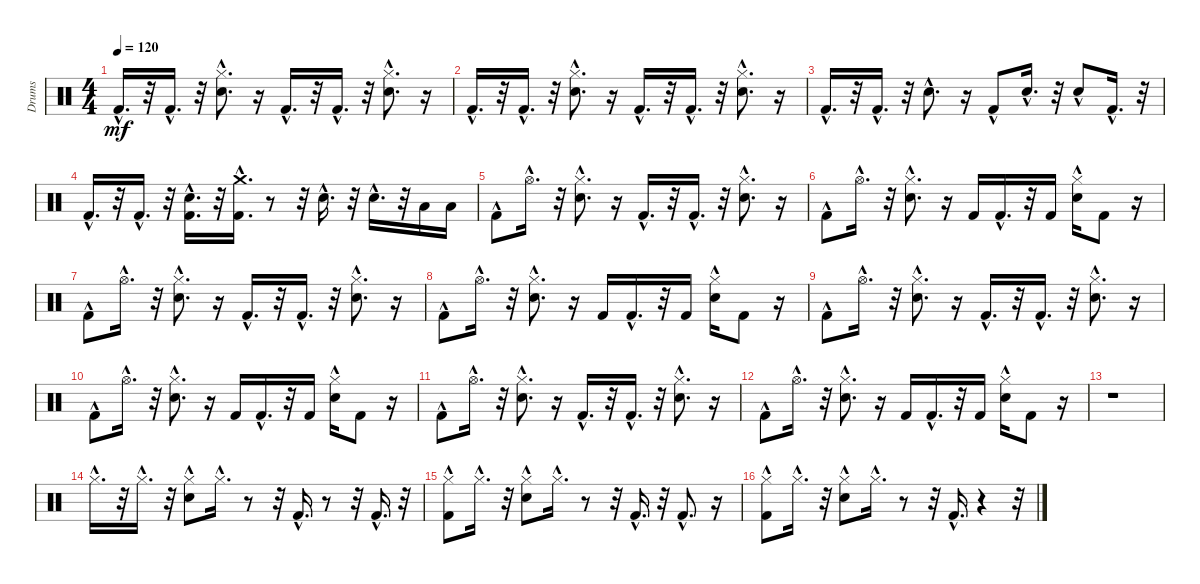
\track ("Drums" "Drums") {instrument percussion}
\staff {score}
\articulation defaults
\ts (4 4)
\tempo 120
\clef neutral
\ks c "Kick (hit) 2"{hac}.16{d dy mf}
r.32 "Kick (hit) 2"{hac}.16{d} r.32 ("Snare (hit) 2"{hac} "Hi-Hat (closed)"{hac}).8{d} r.16 "Kick (hit) 2"{hac}.16{d} r.32 "Kick (hit) 2"{hac}.16{d} r.32 ("Snare (hit) 2"{hac} "Hi-Hat (closed)"{hac}).8{d} r.16 |
"Kick (hit) 2"{hac}.16{d} r.32 "Kick (hit) 2"{hac}.16{d} r.32 ("Hi-Hat (closed)"{hac} "Snare (hit) 2"{hac}).8{d} r.16 "Kick (hit) 2"{hac}.16{d} r.32 "Kick (hit) 2"{hac}.16{d} r.32 ("Snare (hit) 2"{hac} "Hi-Hat (closed)"{hac}).8{d} r.16 |
"Kick (hit) 2"{hac}.16{d} r.32 "Kick (hit) 2"{hac}.16{d} r.32 "Snare (hit) 2"{hac}.8{d} r.16 "Kick (hit) 2"{hac}.8 "Snare (hit) 2"{hac}.16{d} r.32 "Snare (hit) 2"{hac}.8 "Kick (hit) 2"{hac}.16{d} r.32 |
"Kick (hit) 2"{hac}.16{d} r.32 "Kick (hit) 2"{hac}.16{d} r.32 ("Kick (hit) 2"{hac} "Snare (hit) 2"{hac}).16{d} r.32 ("Kick (hit) 2"{hac} "Crash medium (hit)"{hac}).16{d} r.8 r.32 "Snare (hit) 2"{hac}.16{d} r.32 "Snare (hit) 2"{hac}.16{d} r.32 "Low Tom (hit)".16 "Low Tom (hit)".16 |
"Kick (hit) 2"{hac}.8 "Hi-Hat (open)"{hac}.16{d} r.32 ("Hi-Hat (closed)"{hac} "Snare (hit) 2"{hac}).8{d} r.16 "Kick (hit) 2"{hac}.16{d} r.32 "Kick (hit) 2"{hac}.16{d} r.32 ("Hi-Hat (closed)"{hac} "Snare (hit) 2"{hac}).8{d} r.16 |
"Kick (hit) 2"{hac}.8 "Hi-Hat (open)"{hac}.16{d} r.32 ("Snare (hit) 2"{hac} "Hi-Hat (closed)"{hac}).8{d} r.16 "Kick (hit) 2".16 "Kick (hit) 2"{hac}.16{d} r.32 "Kick (hit) 2".16 ("Snare (hit) 2"{hac} "Hi-Hat (closed)"{hac}).16 "Kick (hit) 2".8 r.16 |
"Kick (hit) 2"{hac}.8 "Hi-Hat (open)"{hac}.16{d} r.32 ("Hi-Hat (closed)"{hac} "Snare (hit) 2"{hac}).8{d} r.16 "Kick (hit) 2"{hac}.16{d} r.32 "Kick (hit) 2"{hac}.16{d} r.32 ("Snare (hit) 2"{hac} "Hi-Hat (closed)"{hac}).8{d} r.16 |
"Kick (hit) 2"{hac}.8 "Hi-Hat (open)"{hac}.16{d} r.32 ("Snare (hit) 2"{hac} "Hi-Hat (closed)"{hac}).8{d} r.16 "Kick (hit) 2".16 "Kick (hit) 2"{hac}.16{d} r.32 "Kick (hit) 2".16 ("Snare (hit) 2"{hac} "Hi-Hat (closed)"{hac}).16 "Kick (hit) 2".8 r.16 |
"Kick (hit) 2"{hac}.8 "Hi-Hat (open)"{hac}.16{d} r.32 ("Hi-Hat (closed)"{hac} "Snare (hit) 2"{hac}).8{d} r.16 "Kick (hit) 2"{hac}.16{d} r.32 "Kick (hit) 2"{hac}.16{d} r.32 ("Snare (hit) 2"{hac} "Hi-Hat (closed)"{hac}).8{d} r.16 |
"Kick (hit) 2"{hac}.8 "Hi-Hat (open)"{hac}.16{d} r.32 ("Snare (hit) 2"{hac} "Hi-Hat (closed)"{hac}).8{d} r.16 "Kick (hit) 2".16 "Kick (hit) 2"{hac}.16{d} r.32 "Kick (hit) 2".16 ("Snare (hit) 2"{hac} "Hi-Hat (closed)"{hac}).16 "Kick (hit) 2".8 r.16 |
"Kick (hit) 2"{hac}.8 "Hi-Hat (open)"{hac}.16{d} r.32 ("Hi-Hat (closed)"{hac} "Snare (hit) 2"{hac}).8{d} r.16 "Kick (hit) 2"{hac}.16{d} r.32 "Kick (hit) 2"{hac}.16{d} r.32 ("Snare (hit) 2"{hac} "Hi-Hat (closed)"{hac}).8{d} r.16 |
"Kick (hit) 2"{hac}.8 "Hi-Hat (open)"{hac}.16{d} r.32 ("Snare (hit) 2"{hac} "Hi-Hat (closed)"{hac}).8{d} r.16 "Kick (hit) 2".16 "Kick (hit) 2"{hac}.16{d} r.32 "Kick (hit) 2".16 ("Snare (hit) 2"{hac} "Hi-Hat (closed)"{hac}).16 "Kick (hit) 2".8 r.16 |
r.1 |
"Hi-Hat (closed)"{hac}.16{d} r.32 "Hi-Hat (closed)"{hac}.16{d} r.32 ("Snare (hit) 2"{hac} "Hi-Hat (closed)"{hac}).8 "Hi-Hat (closed)"{hac}.16{d} r.8 r.32 "Kick (hit) 2"{hac}.16{d} r.8 r.32 "Kick (hit) 2"{hac}.16{d} r.32 |
("Kick (hit) 2"{hac} "Hi-Hat (closed)"{hac}).8 "Hi-Hat (closed)"{hac}.16{d} r.32 ("Hi-Hat (closed)"{hac} "Snare (hit) 2"{hac}).8 "Hi-Hat (closed)"{hac}.16{d} r.8 r.32 "Kick (hit) 2"{hac}.16{d} r.32 "Kick (hit) 2"{hac}.8{d} r.16 |
("Kick (hit) 2"{hac} "Hi-Hat (closed)"{hac}).8 "Hi-Hat (closed)"{hac}.16{d} r.32 ("Hi-Hat (closed)"{hac} "Snare (hit) 2"{hac}).8 "Hi-Hat (closed)"{hac}.16{d} r.8 r.32 "Kick (hit) 2"{hac}.16{d} r.4 r.32
